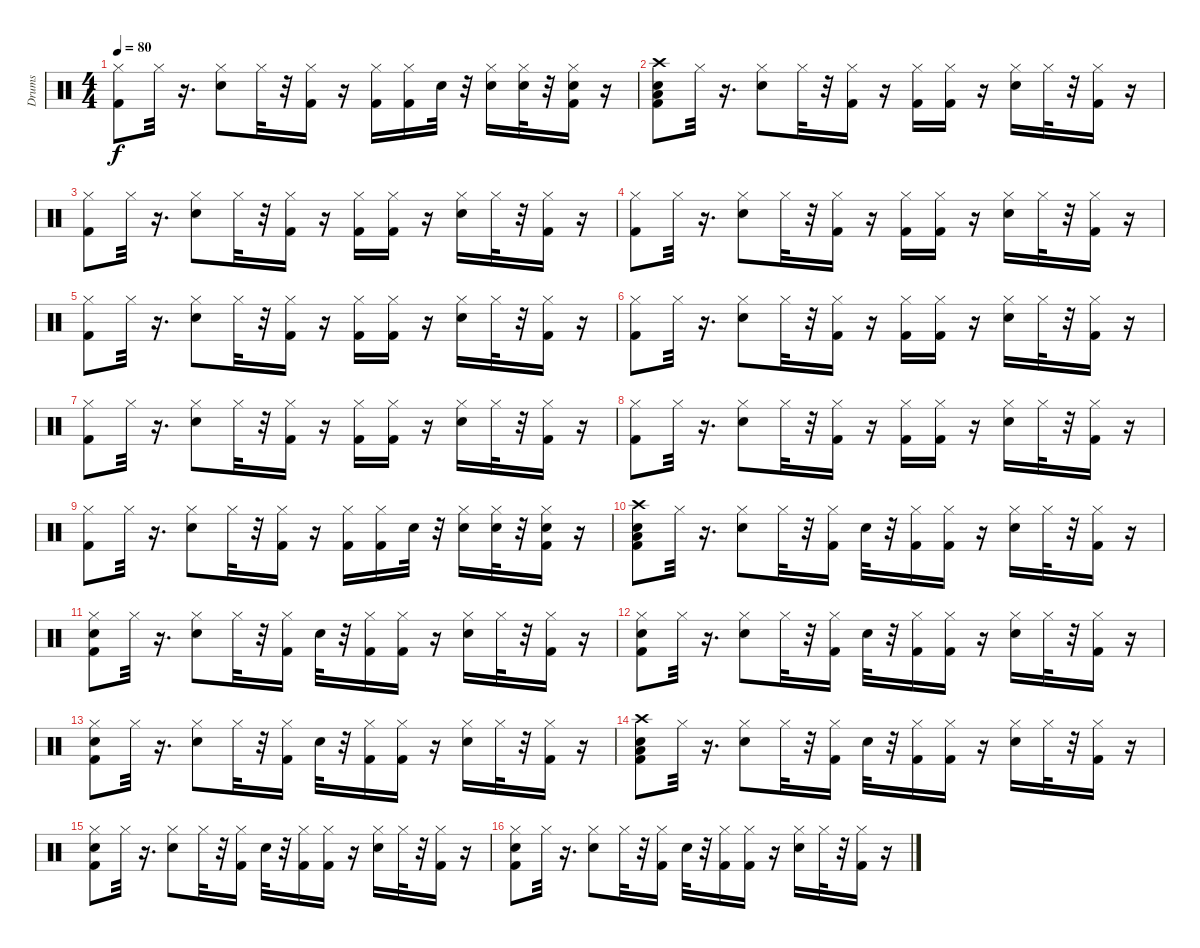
\track ("Drums" "Drums") {instrument percussion}
\staff {score}
\articulation defaults
\ts (4 4)
\tempo 80
\clef neutral
\ks c
("Hi-Hat (closed)" "Kick (hit) 2").8{dy f} "Hi-Hat (closed)".32 r.16{d} ("Hi-Hat (closed)" "Snare (hit) 2").8 "Hi-Hat (closed)".32 r.32 ("Kick (hit) 2" "Hi-Hat (closed)").16 r.16 ("Hi-Hat (closed)" "Kick (hit) 2").16 ("Hi-Hat (closed)" "Kick (hit) 2").16 "Snare (hit) 2".32 r.32 ("Hi-Hat (closed)" "Snare (hit) 2").16 ("Snare (hit) 2" "Hi-Hat (closed)").32 r.32 ("Snare (hit) 2" "Hi-Hat (closed)" "Kick (hit) 2").16 r.16 |
("Snare (hit) 2" "Low Floor Tom (hit)" "Crash high (hit)" "Kick (hit) 2").8 "Hi-Hat (closed)".32 r.16{d} ("Hi-Hat (closed)" "Snare (hit) 2").8 "Hi-Hat (closed)".32 r.32 ("Kick (hit) 2" "Hi-Hat (closed)").16 r.16 ("Hi-Hat (closed)" "Kick (hit) 2").16 ("Hi-Hat (closed)" "Kick (hit) 2").16 r.16 ("Hi-Hat (closed)" "Snare (hit) 2").16 "Hi-Hat (closed)".32 r.32 ("Hi-Hat (closed)" "Kick (hit) 2").16 r.16 |
("Hi-Hat (closed)" "Kick (hit) 2").8 "Hi-Hat (closed)".32 r.16{d} ("Hi-Hat (closed)" "Snare (hit) 2").8 "Hi-Hat (closed)".32 r.32 ("Kick (hit) 2" "Hi-Hat (closed)").16 r.16 ("Hi-Hat (closed)" "Kick (hit) 2").16 ("Hi-Hat (closed)" "Kick (hit) 2").16 r.16 ("Hi-Hat (closed)" "Snare (hit) 2").16 "Hi-Hat (closed)".32 r.32 ("Hi-Hat (closed)" "Kick (hit) 2").16 r.16 |
("Hi-Hat (closed)" "Kick (hit) 2").8 "Hi-Hat (closed)".32 r.16{d} ("Hi-Hat (closed)" "Snare (hit) 2").8 "Hi-Hat (closed)".32 r.32 ("Kick (hit) 2" "Hi-Hat (closed)").16 r.16 ("Hi-Hat (closed)" "Kick (hit) 2").16 ("Hi-Hat (closed)" "Kick (hit) 2").16 r.16 ("Hi-Hat (closed)" "Snare (hit) 2").16 "Hi-Hat (closed)".32 r.32 ("Hi-Hat (closed)" "Kick (hit) 2").16 r.16 |
("Hi-Hat (closed)" "Kick (hit) 2").8 "Hi-Hat (closed)".32 r.16{d} ("Hi-Hat (closed)" "Snare (hit) 2").8 "Hi-Hat (closed)".32 r.32 ("Kick (hit) 2" "Hi-Hat (closed)").16 r.16 ("Hi-Hat (closed)" "Kick (hit) 2").16 ("Hi-Hat (closed)" "Kick (hit) 2").16 r.16 ("Hi-Hat (closed)" "Snare (hit) 2").16 "Hi-Hat (closed)".32 r.32 ("Hi-Hat (closed)" "Kick (hit) 2").16 r.16 |
("Hi-Hat (closed)" "Kick (hit) 2").8 "Hi-Hat (closed)".32 r.16{d} ("Hi-Hat (closed)" "Snare (hit) 2").8 "Hi-Hat (closed)".32 r.32 ("Kick (hit) 2" "Hi-Hat (closed)").16 r.16 ("Hi-Hat (closed)" "Kick (hit) 2").16 ("Hi-Hat (closed)" "Kick (hit) 2").16 r.16 ("Hi-Hat (closed)" "Snare (hit) 2").16 "Hi-Hat (closed)".32 r.32 ("Hi-Hat (closed)" "Kick (hit) 2").16 r.16 |
("Hi-Hat (closed)" "Kick (hit) 2").8 "Hi-Hat (closed)".32 r.16{d} ("Hi-Hat (closed)" "Snare (hit) 2").8 "Hi-Hat (closed)".32 r.32 ("Kick (hit) 2" "Hi-Hat (closed)").16 r.16 ("Hi-Hat (closed)" "Kick (hit) 2").16 ("Hi-Hat (closed)" "Kick (hit) 2").16 r.16 ("Hi-Hat (closed)" "Snare (hit) 2").16 "Hi-Hat (closed)".32 r.32 ("Hi-Hat (closed)" "Kick (hit) 2").16 r.16 |
("Hi-Hat (closed)" "Kick (hit) 2").8 "Hi-Hat (closed)".32 r.16{d} ("Hi-Hat (closed)" "Snare (hit) 2").8 "Hi-Hat (closed)".32 r.32 ("Kick (hit) 2" "Hi-Hat (closed)").16 r.16 ("Hi-Hat (closed)" "Kick (hit) 2").16 ("Hi-Hat (closed)" "Kick (hit) 2").16 r.16 ("Hi-Hat (closed)" "Snare (hit) 2").16 "Hi-Hat (closed)".32 r.32 ("Hi-Hat (closed)" "Kick (hit) 2").16 r.16 |
("Hi-Hat (closed)" "Kick (hit) 2").8 "Hi-Hat (closed)".32 r.16{d} ("Hi-Hat (closed)" "Snare (hit) 2").8 "Hi-Hat (closed)".32 r.32 ("Kick (hit) 2" "Hi-Hat (closed)").16 r.16 ("Hi-Hat (closed)" "Kick (hit) 2").16 ("Hi-Hat (closed)" "Kick (hit) 2").16 "Snare (hit) 2".32 r.32 ("Hi-Hat (closed)" "Snare (hit) 2").16 ("Snare (hit) 2" "Hi-Hat (closed)").32 r.32 ("Snare (hit) 2" "Hi-Hat (closed)" "Kick (hit) 2").16 r.16 |
("Snare (hit) 2" "Low Floor Tom (hit)" "Crash high (hit)" "Kick (hit) 2").8 "Hi-Hat (closed)".32 r.16{d} ("Hi-Hat (closed)" "Snare (hit) 2").8 "Hi-Hat (closed)".32 r.32 ("Kick (hit) 2" "Hi-Hat (closed)").16 "Snare (hit) 2".32 r.32 ("Hi-Hat (closed)" "Kick (hit) 2").16 ("Hi-Hat (closed)" "Kick (hit) 2").16 r.16 ("Hi-Hat (closed)" "Snare (hit) 2").16 "Hi-Hat (closed)".32 r.32 ("Hi-Hat (closed)" "Kick (hit) 2").16 r.16 |
("Snare (hit) 2" "Hi-Hat (closed)" "Kick (hit) 2").8 "Hi-Hat (closed)".32 r.16{d} ("Hi-Hat (closed)" "Snare (hit) 2").8 "Hi-Hat (closed)".32 r.32 ("Kick (hit) 2" "Hi-Hat (closed)").16 "Snare (hit) 2".32 r.32 ("Hi-Hat (closed)" "Kick (hit) 2").16 ("Hi-Hat (closed)" "Kick (hit) 2").16 r.16 ("Hi-Hat (closed)" "Snare (hit) 2").16 "Hi-Hat (closed)".32 r.32 ("Hi-Hat (closed)" "Kick (hit) 2").16 r.16 |
("Snare (hit) 2" "Hi-Hat (closed)" "Kick (hit) 2").8 "Hi-Hat (closed)".32 r.16{d} ("Hi-Hat (closed)" "Snare (hit) 2").8 "Hi-Hat (closed)".32 r.32 ("Kick (hit) 2" "Hi-Hat (closed)").16 "Snare (hit) 2".32 r.32 ("Hi-Hat (closed)" "Kick (hit) 2").16 ("Hi-Hat (closed)" "Kick (hit) 2").16 r.16 ("Hi-Hat (closed)" "Snare (hit) 2").16 "Hi-Hat (closed)".32 r.32 ("Hi-Hat (closed)" "Kick (hit) 2").16 r.16 |
("Snare (hit) 2" "Hi-Hat (closed)" "Kick (hit) 2").8 "Hi-Hat (closed)".32 r.16{d} ("Hi-Hat (closed)" "Snare (hit) 2").8 "Hi-Hat (closed)".32 r.32 ("Kick (hit) 2" "Hi-Hat (closed)").16 "Snare (hit) 2".32 r.32 ("Hi-Hat (closed)" "Kick (hit) 2").16 ("Hi-Hat (closed)" "Kick (hit) 2").16 r.16 ("Hi-Hat (closed)" "Snare (hit) 2").16 "Hi-Hat (closed)".32 r.32 ("Hi-Hat (closed)" "Kick (hit) 2").16 r.16 |
("Snare (hit) 2" "Crash high (hit)" "Kick (hit) 2" "Low Floor Tom (hit)").8 "Hi-Hat (closed)".32 r.16{d} ("Hi-Hat (closed)" "Snare (hit) 2").8 "Hi-Hat (closed)".32 r.32 ("Kick (hit) 2" "Hi-Hat (closed)").16 "Snare (hit) 2".32 r.32 ("Hi-Hat (closed)" "Kick (hit) 2").16 ("Hi-Hat (closed)" "Kick (hit) 2").16 r.16 ("Hi-Hat (closed)" "Snare (hit) 2").16 "Hi-Hat (closed)".32 r.32 ("Hi-Hat (closed)" "Kick (hit) 2").16 r.16 |
("Snare (hit) 2" "Hi-Hat (closed)" "Kick (hit) 2").8 "Hi-Hat (closed)".32 r.16{d} ("Hi-Hat (closed)" "Snare (hit) 2").8 "Hi-Hat (closed)".32 r.32 ("Kick (hit) 2" "Hi-Hat (closed)").16 "Snare (hit) 2".32 r.32 ("Hi-Hat (closed)" "Kick (hit) 2").16 ("Hi-Hat (closed)" "Kick (hit) 2").16 r.16 ("Hi-Hat (closed)" "Snare (hit) 2").16 "Hi-Hat (closed)".32 r.32 ("Hi-Hat (closed)" "Kick (hit) 2").16 r.16 |
("Snare (hit) 2" "Hi-Hat (closed)" "Kick (hit) 2").8 "Hi-Hat (closed)".32 r.16{d} ("Hi-Hat (closed)" "Snare (hit) 2").8 "Hi-Hat (closed)".32 r.32 ("Kick (hit) 2" "Hi-Hat (closed)").16 "Snare (hit) 2".32 r.32 ("Hi-Hat (closed)" "Kick (hit) 2").16 ("Hi-Hat (closed)" "Kick (hit) 2").16 r.16 ("Hi-Hat (closed)" "Snare (hit) 2").16 "Hi-Hat (closed)".32 r.32 ("Hi-Hat (closed)" "Kick (hit) 2").16 r.16
